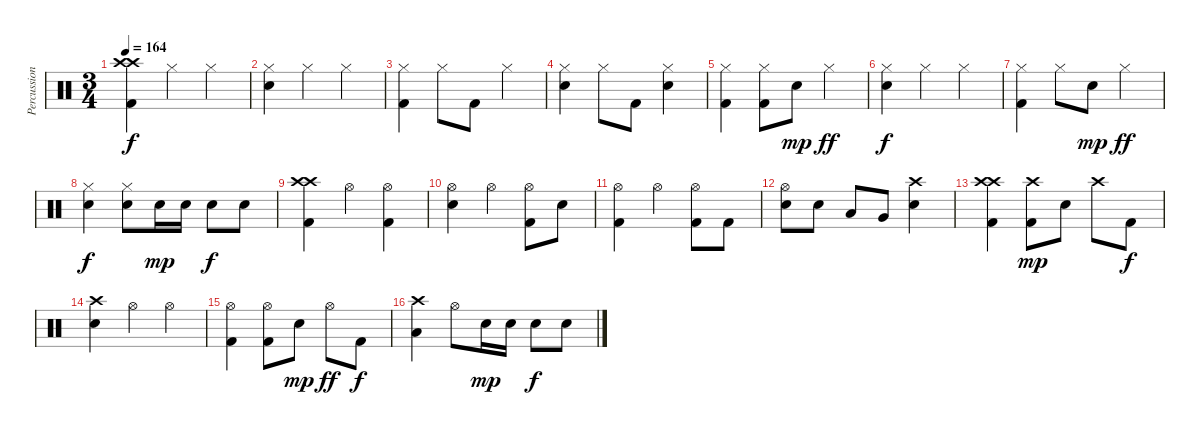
\track ("Percussion" "Percussion") {instrument percussion}
\staff {score}
\articulation defaults
\ts (3 4)
\tempo 164
\clef neutral
\ks c
("Crash high (hit)" "Crash high (hit)" "Kick (hit) 2").4{dy f} "Hi-Hat (closed)".4 "Hi-Hat (closed)".4 |
("Hi-Hat (closed)" "Snare (hit) 2").4 "Hi-Hat (closed)".4 "Hi-Hat (closed)".4 |
("Hi-Hat (closed)" "Kick (hit) 2").4 "Hi-Hat (closed)".8 "Kick (hit) 2".8 "Hi-Hat (closed)".4 |
("Hi-Hat (closed)" "Snare (hit) 2").4 "Hi-Hat (closed)".8 "Kick (hit) 2".8 ("Hi-Hat (closed)" "Snare (hit) 2").4 |
("Hi-Hat (closed)" "Kick (hit) 2").4 ("Hi-Hat (closed)" "Kick (hit) 2").8 "Snare (hit) 2".8{dy mp} "Hi-Hat (closed)".4{dy ff} |
("Hi-Hat (closed)" "Snare (hit) 2").4{dy f} "Hi-Hat (closed)".4 "Hi-Hat (closed)".4 |
("Hi-Hat (closed)" "Kick (hit) 2").4 "Hi-Hat (closed)".8 "Snare (hit) 2".8{dy mp} "Hi-Hat (closed)".4{dy ff} |
("Hi-Hat (closed)" "Snare (hit) 2").4{dy f} ("Hi-Hat (closed)" "Snare (hit) 2").8 "Snare (hit) 2".16{dy mp} "Snare (hit) 2".16 "Snare (hit) 2".8{dy f} "Snare (hit) 2".8 |
("Crash high (hit)" "Crash high (hit)" "Kick (hit) 2").4 "Hi-Hat (open)".4 ("Hi-Hat (open)" "Kick (hit) 2").4 |
("Hi-Hat (open)" "Snare (hit) 2").4 "Hi-Hat (open)".4 ("Hi-Hat (open)" "Kick (hit) 2").8 "Snare (hit) 2".8 |
("Hi-Hat (open)" "Kick (hit) 2").4 "Hi-Hat (open)".4 ("Hi-Hat (open)" "Kick (hit) 2").8 "Kick (hit) 2".8 |
("Hi-Hat (open)" "Snare (hit) 2").8 "Snare (hit) 2".8 "Low Tom (hit)".8 "Very Low Tom (hit)".8 ("Crash high (hit)" "Snare (hit) 2").4 |
("Crash high (hit)" "Crash high (hit)" "Kick (hit) 2").4 ("Crash high (hit)" "Kick (hit) 2").8{dy mp} "Snare (hit) 2".8 "Crash high (hit)".8 "Kick (hit) 2".8{dy f} |
("Crash high (hit)" "Snare (hit) 2").4 "Hi-Hat (open)".4 "Hi-Hat (open)".4 |
("Hi-Hat (open)" "Kick (hit) 2").4 ("Hi-Hat (open)" "Kick (hit) 2").8 "Snare (hit) 2".8{dy mp} "Hi-Hat (open)".8{dy ff} "Kick (hit) 2".8{dy f} |
("Crash high (hit)" "Low Tom (hit)").4 "Hi-Hat (open)".8 "Snare (hit) 2".16{dy mp} "Snare (hit) 2".16 "Snare (hit) 2".8{dy f} "Snare (hit) 2".8
